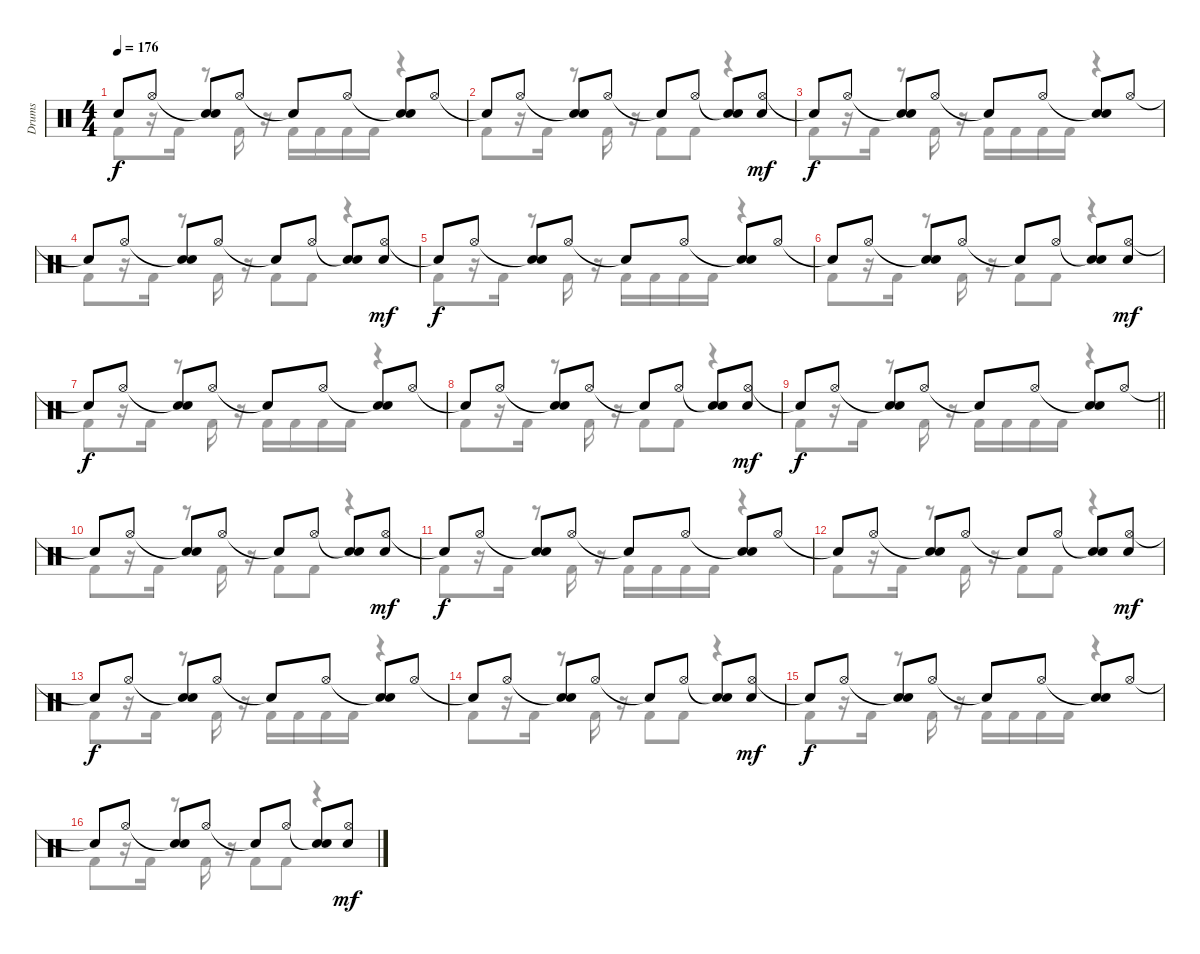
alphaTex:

\track ("Drums" "Drums") {instrument percussion}
\staff {score}
\articulation defaults
\voice
\ts (4 4)
\tempo 176
\clef neutral
\ks c "Snare (hit)"{t}.8{dy f} "Hi-Hat (open)".8
("Snare (hit)"{t} "Snare (hit) 2").8 "Hi-Hat (open)".8 "Snare (hit)"{t}.8 "Hi-Hat (open)".8 ("Snare (hit)"{t} "Snare (hit) 2").8 "Hi-Hat (open)".8 |
"Snare (hit)"{t}.8 "Hi-Hat (open)".8 ("Snare (hit)"{t} "Snare (hit) 2").8 "Hi-Hat (open)".8 "Snare (hit)"{t}.8 "Hi-Hat (open)".8 ("Snare (hit)"{t} "Snare (hit) 2").8 ("Hi-Hat (open)" "Electric Snare (hit)").8{dy mf} |
"Snare (hit)"{t}.8{dy f} "Hi-Hat (open)".8 ("Snare (hit)"{t} "Snare (hit) 2").8 "Hi-Hat (open)".8 "Snare (hit)"{t}.8 "Hi-Hat (open)".8 ("Snare (hit)"{t} "Snare (hit) 2").8 "Hi-Hat (open)".8 |
"Snare (hit)"{t}.8 "Hi-Hat (open)".8 ("Snare (hit)"{t} "Snare (hit) 2").8 "Hi-Hat (open)".8 "Snare (hit)"{t}.8 "Hi-Hat (open)".8 ("Snare (hit)"{t} "Snare (hit) 2").8 ("Hi-Hat (open)" "Electric Snare (hit)").8{dy mf} |
"Snare (hit)"{t}.8{dy f} "Hi-Hat (open)".8 ("Snare (hit)"{t} "Snare (hit) 2").8 "Hi-Hat (open)".8 "Snare (hit)"{t}.8 "Hi-Hat (open)".8 ("Snare (hit)"{t} "Snare (hit) 2").8 "Hi-Hat (open)".8 |
"Snare (hit)"{t}.8 "Hi-Hat (open)".8 ("Snare (hit)"{t} "Snare (hit) 2").8 "Hi-Hat (open)".8 "Snare (hit)"{t}.8 "Hi-Hat (open)".8 ("Snare (hit)"{t} "Snare (hit) 2").8 ("Hi-Hat (open)" "Electric Snare (hit)").8{dy mf} |
"Snare (hit)"{t}.8{dy f} "Hi-Hat (open)".8 ("Snare (hit)"{t} "Snare (hit) 2").8 "Hi-Hat (open)".8 "Snare (hit)"{t}.8 "Hi-Hat (open)".8 ("Snare (hit)"{t} "Snare (hit) 2").8 "Hi-Hat (open)".8 |
"Snare (hit)"{t}.8 "Hi-Hat (open)".8 ("Snare (hit)"{t} "Snare (hit) 2").8 "Hi-Hat (open)".8 "Snare (hit)"{t}.8 "Hi-Hat (open)".8 ("Snare (hit)"{t} "Snare (hit) 2").8 ("Hi-Hat (open)" "Electric Snare (hit)").8{dy mf} |
\barLineRight lightlight "Snare (hit)"{t}.8{dy f} "Hi-Hat (open)".8
("Snare (hit)"{t} "Snare (hit) 2").8 "Hi-Hat (open)".8 "Snare (hit)"{t}.8 "Hi-Hat (open)".8 ("Snare (hit)"{t} "Snare (hit) 2").8 "Hi-Hat (open)".8 |
"Snare (hit)"{t}.8 "Hi-Hat (open)".8 ("Snare (hit)"{t} "Snare (hit) 2").8 "Hi-Hat (open)".8 "Snare (hit)"{t}.8 "Hi-Hat (open)".8 ("Snare (hit)"{t} "Snare (hit) 2").8 ("Hi-Hat (open)" "Electric Snare (hit)").8{dy mf} |
"Snare (hit)"{t}.8{dy f} "Hi-Hat (open)".8 ("Snare (hit)"{t} "Snare (hit) 2").8 "Hi-Hat (open)".8 "Snare (hit)"{t}.8 "Hi-Hat (open)".8 ("Snare (hit)"{t} "Snare (hit) 2").8 "Hi-Hat (open)".8 |
"Snare (hit)"{t}.8 "Hi-Hat (open)".8 ("Snare (hit)"{t} "Snare (hit) 2").8 "Hi-Hat (open)".8 "Snare (hit)"{t}.8 "Hi-Hat (open)".8 ("Snare (hit)"{t} "Snare (hit) 2").8 ("Hi-Hat (open)" "Electric Snare (hit)").8{dy mf} |
"Snare (hit)"{t}.8{dy f} "Hi-Hat (open)".8 ("Snare (hit)"{t} "Snare (hit) 2").8 "Hi-Hat (open)".8 "Snare (hit)"{t}.8 "Hi-Hat (open)".8 ("Snare (hit)"{t} "Snare (hit) 2").8 "Hi-Hat (open)".8 |
"Snare (hit)"{t}.8 "Hi-Hat (open)".8 ("Snare (hit)"{t} "Snare (hit) 2").8 "Hi-Hat (open)".8 "Snare (hit)"{t}.8 "Hi-Hat (open)".8 ("Snare (hit)"{t} "Snare (hit) 2").8 ("Hi-Hat (open)" "Electric Snare (hit)").8{dy mf} |
"Snare (hit)"{t}.8{dy f} "Hi-Hat (open)".8 ("Snare (hit)"{t} "Snare (hit) 2").8 "Hi-Hat (open)".8 "Snare (hit)"{t}.8 "Hi-Hat (open)".8 ("Snare (hit)"{t} "Snare (hit) 2").8 "Hi-Hat (open)".8 |
"Snare (hit)"{t}.8 "Hi-Hat (open)".8 ("Snare (hit)"{t} "Snare (hit) 2").8 "Hi-Hat (open)".8 "Snare (hit)"{t}.8 "Hi-Hat (open)".8 ("Snare (hit)"{t} "Snare (hit) 2").8 ("Hi-Hat (open)" "Electric Snare (hit)").8{dy mf}
\voice
\clef neutral
\ottava regular
\simile none
\ks c "Kick (hit) 2".8{dy f}
r.16 "Kick (hit) 2".16 r.8 "Kick (hit) 2".16 r.16 "Kick (hit) 2".16 "Kick (hit) 2".16 "Kick (hit) 2".16 "Kick (hit) 2".16 r.4 |
"Kick (hit) 2".8 r.16 "Kick (hit) 2".16 r.8 "Kick (hit) 2".16 r.16 "Kick (hit) 2".8 "Kick (hit) 2".8 r.4 |
"Kick (hit) 2".8 r.16 "Kick (hit) 2".16 r.8 "Kick (hit) 2".16 r.16 "Kick (hit) 2".16 "Kick (hit) 2".16 "Kick (hit) 2".16 "Kick (hit) 2".16 r.4 |
"Kick (hit) 2".8 r.16 "Kick (hit) 2".16 r.8 "Kick (hit) 2".16 r.16 "Kick (hit) 2".8 "Kick (hit) 2".8 r.4 |
"Kick (hit) 2".8 r.16 "Kick (hit) 2".16 r.8 "Kick (hit) 2".16 r.16 "Kick (hit) 2".16 "Kick (hit) 2".16 "Kick (hit) 2".16 "Kick (hit) 2".16 r.4 |
"Kick (hit) 2".8 r.16 "Kick (hit) 2".16 r.8 "Kick (hit) 2".16 r.16 "Kick (hit) 2".8 "Kick (hit) 2".8 r.4 |
"Kick (hit) 2".8 r.16 "Kick (hit) 2".16 r.8 "Kick (hit) 2".16 r.16 "Kick (hit) 2".16 "Kick (hit) 2".16 "Kick (hit) 2".16 "Kick (hit) 2".16 r.4 |
"Kick (hit) 2".8 r.16 "Kick (hit) 2".16 r.8 "Kick (hit) 2".16 r.16 "Kick (hit) 2".8 "Kick (hit) 2".8 r.4 |
\barLineRight lightlight "Kick (hit) 2".8
r.16 "Kick (hit) 2".16 r.8 "Kick (hit) 2".16 r.16 "Kick (hit) 2".16 "Kick (hit) 2".16 "Kick (hit) 2".16 "Kick (hit) 2".16 r.4 |
"Kick (hit) 2".8 r.16 "Kick (hit) 2".16 r.8 "Kick (hit) 2".16 r.16 "Kick (hit) 2".8 "Kick (hit) 2".8 r.4 |
"Kick (hit) 2".8 r.16 "Kick (hit) 2".16 r.8 "Kick (hit) 2".16 r.16 "Kick (hit) 2".16 "Kick (hit) 2".16 "Kick (hit) 2".16 "Kick (hit) 2".16 r.4 |
"Kick (hit) 2".8 r.16 "Kick (hit) 2".16 r.8 "Kick (hit) 2".16 r.16 "Kick (hit) 2".8 "Kick (hit) 2".8 r.4 |
"Kick (hit) 2".8 r.16 "Kick (hit) 2".16 r.8 "Kick (hit) 2".16 r.16 "Kick (hit) 2".16 "Kick (hit) 2".16 "Kick (hit) 2".16 "Kick (hit) 2".16 r.4 |
"Kick (hit) 2".8 r.16 "Kick (hit) 2".16 r.8 "Kick (hit) 2".16 r.16 "Kick (hit) 2".8 "Kick (hit) 2".8 r.4 |
"Kick (hit) 2".8 r.16 "Kick (hit) 2".16 r.8 "Kick (hit) 2".16 r.16 "Kick (hit) 2".16 "Kick (hit) 2".16 "Kick (hit) 2".16 "Kick (hit) 2".16 r.4 |
"Kick (hit) 2".8 r.16 "Kick (hit) 2".16 r.8 "Kick (hit) 2".16 r.16 "Kick (hit) 2".8 "Kick (hit) 2".8 r.4
